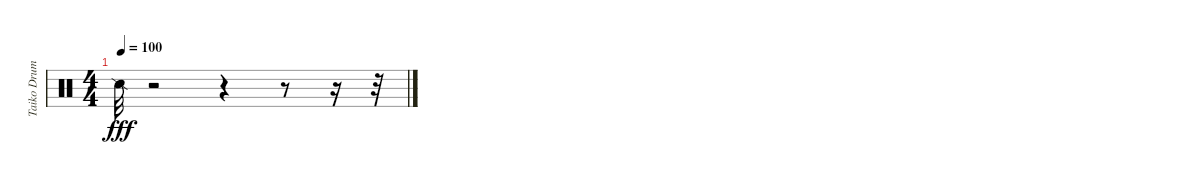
\track ("Taiko Drums" "Taiko Drum") {instrument percussion}
\staff {score}
\articulation defaults
\ts (4 4)
\tempo 100
\clef neutral
\ks c "Snare (side stick) 2".32{dy fff}
r.2 r.4 r.8 r.16 r.32
